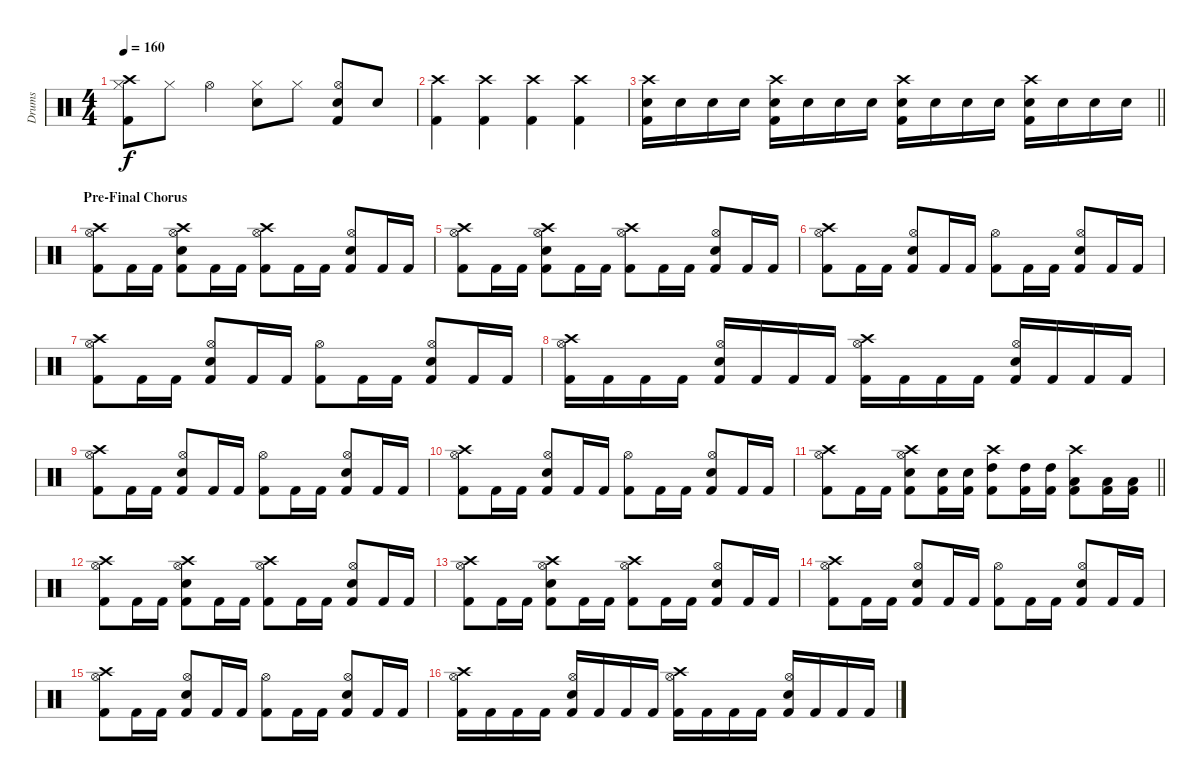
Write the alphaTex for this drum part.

\track ("Drums" "Drums") {instrument percussion}
\staff {score}
\articulation defaults
\ts (4 4)
\tempo 160
\clef neutral
\ks c
("Crash high (hit)" "Hi-Hat (closed)" "Kick (hit) 2").8{dy f} "Hi-Hat (closed)".8 "Hi-Hat (open)".4 ("Hi-Hat (closed)" "Snare (hit) 2").8 "Hi-Hat (closed)".8 ("Hi-Hat (open)" "Snare (hit) 2" "Kick (hit) 2").8 "Snare (hit) 2".8 |
("Crash high (hit)" "Kick (hit) 2").4 ("Crash high (hit)" "Kick (hit) 2").4 ("Crash high (hit)" "Kick (hit) 2").4 ("Crash high (hit)" "Kick (hit) 2").4 |
\barLineRight lightlight
("Crash high (hit)" "Snare (hit) 2" "Kick (hit) 2").16 "Snare (hit) 2".16 "Snare (hit) 2".16 "Snare (hit) 2".16 ("Crash high (hit)" "Snare (hit) 2" "Kick (hit) 2").16 "Snare (hit) 2".16 "Snare (hit) 2".16 "Snare (hit) 2".16 ("Crash high (hit)" "Snare (hit) 2" "Kick (hit) 2").16 "Snare (hit) 2".16 "Snare (hit) 2".16 "Snare (hit) 2".16 ("Crash high (hit)" "Snare (hit) 2" "Kick (hit) 2").16 "Snare (hit) 2".16 "Snare (hit) 2".16 "Snare (hit) 2".16 |
\section ("" "Pre-Final Chorus")
("Crash high (hit)" "Hi-Hat (open)" "Kick (hit) 2").8 "Kick (hit) 2".16 "Kick (hit) 2".16 ("Crash high (hit)" "Hi-Hat (open)" "Snare (hit) 2" "Kick (hit) 2").8 "Kick (hit) 2".16 "Kick (hit) 2".16 ("Crash high (hit)" "Hi-Hat (open)" "Kick (hit) 2").8 "Kick (hit) 2".16 "Kick (hit) 2".16 ("Hi-Hat (open)" "Snare (hit) 2" "Kick (hit) 2").8 "Kick (hit) 2".16 "Kick (hit) 2".16 |
("Crash high (hit)" "Hi-Hat (open)" "Kick (hit) 2").8 "Kick (hit) 2".16 "Kick (hit) 2".16 ("Crash high (hit)" "Hi-Hat (open)" "Snare (hit) 2" "Kick (hit) 2").8 "Kick (hit) 2".16 "Kick (hit) 2".16 ("Crash high (hit)" "Hi-Hat (open)" "Kick (hit) 2").8 "Kick (hit) 2".16 "Kick (hit) 2".16 ("Hi-Hat (open)" "Snare (hit) 2" "Kick (hit) 2").8 "Kick (hit) 2".16 "Kick (hit) 2".16 |
("Crash high (hit)" "Hi-Hat (open)" "Kick (hit) 2").8 "Kick (hit) 2".16 "Kick (hit) 2".16 ("Hi-Hat (open)" "Snare (hit) 2" "Kick (hit) 2").8 "Kick (hit) 2".16 "Kick (hit) 2".16 ("Hi-Hat (open)" "Kick (hit) 2").8 "Kick (hit) 2".16 "Kick (hit) 2".16 ("Hi-Hat (open)" "Snare (hit) 2" "Kick (hit) 2").8 "Kick (hit) 2".16 "Kick (hit) 2".16 |
("Crash high (hit)" "Hi-Hat (open)" "Kick (hit) 2").8 "Kick (hit) 2".16 "Kick (hit) 2".16 ("Hi-Hat (open)" "Snare (hit) 2" "Kick (hit) 2").8 "Kick (hit) 2".16 "Kick (hit) 2".16 ("Hi-Hat (open)" "Kick (hit) 2").8 "Kick (hit) 2".16 "Kick (hit) 2".16 ("Hi-Hat (open)" "Snare (hit) 2" "Kick (hit) 2").8 "Kick (hit) 2".16 "Kick (hit) 2".16 |
("Crash high (hit)" "Hi-Hat (open)" "Kick (hit) 2").16 "Kick (hit) 2".16 "Kick (hit) 2".16 "Kick (hit) 2".16 ("Hi-Hat (open)" "Snare (hit) 2" "Kick (hit) 2").16 "Kick (hit) 2".16 "Kick (hit) 2".16 "Kick (hit) 2".16 ("Crash high (hit)" "Hi-Hat (open)" "Kick (hit) 2").16 "Kick (hit) 2".16 "Kick (hit) 2".16 "Kick (hit) 2".16 ("Hi-Hat (open)" "Snare (hit) 2" "Kick (hit) 2").16 "Kick (hit) 2".16 "Kick (hit) 2".16 "Kick (hit) 2".16 |
("Crash high (hit)" "Hi-Hat (open)" "Kick (hit) 2").8 "Kick (hit) 2".16 "Kick (hit) 2".16 ("Hi-Hat (open)" "Snare (hit) 2" "Kick (hit) 2").8 "Kick (hit) 2".16 "Kick (hit) 2".16 ("Hi-Hat (open)" "Kick (hit) 2").8 "Kick (hit) 2".16 "Kick (hit) 2".16 ("Hi-Hat (open)" "Snare (hit) 2" "Kick (hit) 2").8 "Kick (hit) 2".16 "Kick (hit) 2".16 |
("Crash high (hit)" "Hi-Hat (open)" "Kick (hit) 2").8 "Kick (hit) 2".16 "Kick (hit) 2".16 ("Hi-Hat (open)" "Snare (hit) 2" "Kick (hit) 2").8 "Kick (hit) 2".16 "Kick (hit) 2".16 ("Hi-Hat (open)" "Kick (hit) 2").8 "Kick (hit) 2".16 "Kick (hit) 2".16 ("Hi-Hat (open)" "Snare (hit) 2" "Kick (hit) 2").8 "Kick (hit) 2".16 "Kick (hit) 2".16 |
\barLineRight lightlight
("Crash high (hit)" "Hi-Hat (open)" "Kick (hit) 2").8 "Kick (hit) 2".16 "Kick (hit) 2".16 ("Crash high (hit)" "Hi-Hat (open)" "Snare (hit) 2" "Kick (hit) 2").8 ("Snare (hit) 2" "Kick (hit) 2").16 ("Snare (hit) 2" "Kick (hit) 2").16 ("Crash high (hit)" "High Tom (hit)" "Kick (hit) 2").8 ("High Tom (hit)" "Kick (hit) 2").16 ("High Tom (hit)" "Kick (hit) 2").16 ("Crash high (hit)" "Low Tom (hit)" "Kick (hit) 2").8 ("Low Tom (hit)" "Kick (hit) 2").16 ("Low Tom (hit)" "Kick (hit) 2").16 |
("Crash high (hit)" "Hi-Hat (open)" "Kick (hit) 2").8 "Kick (hit) 2".16 "Kick (hit) 2".16 ("Crash high (hit)" "Hi-Hat (open)" "Snare (hit) 2" "Kick (hit) 2").8 "Kick (hit) 2".16 "Kick (hit) 2".16 ("Crash high (hit)" "Hi-Hat (open)" "Kick (hit) 2").8 "Kick (hit) 2".16 "Kick (hit) 2".16 ("Hi-Hat (open)" "Snare (hit) 2" "Kick (hit) 2").8 "Kick (hit) 2".16 "Kick (hit) 2".16 |
("Crash high (hit)" "Hi-Hat (open)" "Kick (hit) 2").8 "Kick (hit) 2".16 "Kick (hit) 2".16 ("Crash high (hit)" "Hi-Hat (open)" "Snare (hit) 2" "Kick (hit) 2").8 "Kick (hit) 2".16 "Kick (hit) 2".16 ("Crash high (hit)" "Hi-Hat (open)" "Kick (hit) 2").8 "Kick (hit) 2".16 "Kick (hit) 2".16 ("Hi-Hat (open)" "Snare (hit) 2" "Kick (hit) 2").8 "Kick (hit) 2".16 "Kick (hit) 2".16 |
("Crash high (hit)" "Hi-Hat (open)" "Kick (hit) 2").8 "Kick (hit) 2".16 "Kick (hit) 2".16 ("Hi-Hat (open)" "Snare (hit) 2" "Kick (hit) 2").8 "Kick (hit) 2".16 "Kick (hit) 2".16 ("Hi-Hat (open)" "Kick (hit) 2").8 "Kick (hit) 2".16 "Kick (hit) 2".16 ("Hi-Hat (open)" "Snare (hit) 2" "Kick (hit) 2").8 "Kick (hit) 2".16 "Kick (hit) 2".16 |
("Crash high (hit)" "Hi-Hat (open)" "Kick (hit) 2").8 "Kick (hit) 2".16 "Kick (hit) 2".16 ("Hi-Hat (open)" "Snare (hit) 2" "Kick (hit) 2").8 "Kick (hit) 2".16 "Kick (hit) 2".16 ("Hi-Hat (open)" "Kick (hit) 2").8 "Kick (hit) 2".16 "Kick (hit) 2".16 ("Hi-Hat (open)" "Snare (hit) 2" "Kick (hit) 2").8 "Kick (hit) 2".16 "Kick (hit) 2".16 |
("Crash high (hit)" "Hi-Hat (open)" "Kick (hit) 2").16 "Kick (hit) 2".16 "Kick (hit) 2".16 "Kick (hit) 2".16 ("Hi-Hat (open)" "Snare (hit) 2" "Kick (hit) 2").16 "Kick (hit) 2".16 "Kick (hit) 2".16 "Kick (hit) 2".16 ("Crash high (hit)" "Hi-Hat (open)" "Kick (hit) 2").16 "Kick (hit) 2".16 "Kick (hit) 2".16 "Kick (hit) 2".16 ("Hi-Hat (open)" "Snare (hit) 2" "Kick (hit) 2").16 "Kick (hit) 2".16 "Kick (hit) 2".16 "Kick (hit) 2".16
